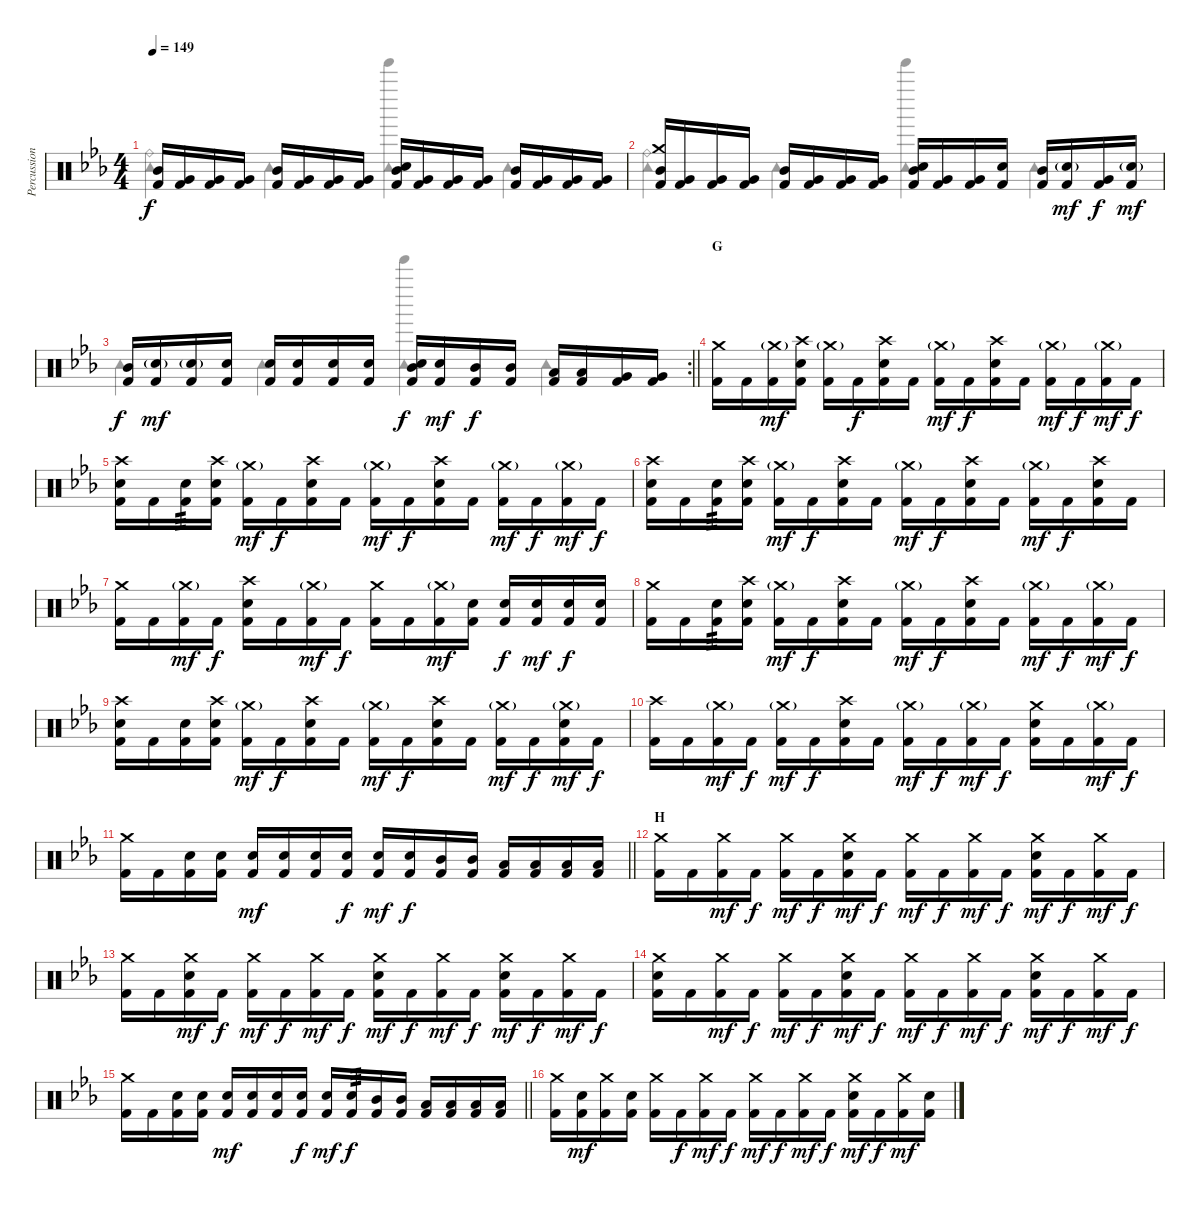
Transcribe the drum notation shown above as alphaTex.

\track ("Percussion" "Percussion") {instrument percussion}
\staff {score}
\articulation defaults
\voice
\ts (4 4)
\tempo 149
\clef neutral
\ks cminor
("Mid Tom (hit)" "Kick (hit) 2").16{dy f} ("Very Low Tom (hit)" "Kick (hit) 2").16 ("Very Low Tom (hit)" "Kick (hit) 2").16 ("Very Low Tom (hit)" "Kick (hit) 2").16 ("Mid Tom (hit)" "Kick (hit) 2").16 ("Very Low Tom (hit)" "Kick (hit) 2").16 ("Very Low Tom (hit)" "Kick (hit) 2").16 ("Very Low Tom (hit)" "Kick (hit) 2").16 ("Mid Tom (hit)" "Snare (hit) 2" "Kick (hit) 2").16 ("Very Low Tom (hit)" "Kick (hit) 2").16 ("Very Low Tom (hit)" "Kick (hit) 2").16 ("Very Low Tom (hit)" "Kick (hit) 2").16 ("Mid Tom (hit)" "Kick (hit) 2").16 ("Very Low Tom (hit)" "Kick (hit) 2").16 ("Very Low Tom (hit)" "Kick (hit) 2").16 ("Very Low Tom (hit)" "Kick (hit) 2").16 |
("Crash medium (hit)" "Mid Tom (hit)" "Kick (hit) 2").16 ("Very Low Tom (hit)" "Kick (hit) 2").16 ("Very Low Tom (hit)" "Kick (hit) 2").16 ("Very Low Tom (hit)" "Kick (hit) 2").16 ("Mid Tom (hit)" "Kick (hit) 2").16 ("Very Low Tom (hit)" "Kick (hit) 2").16 ("Very Low Tom (hit)" "Kick (hit) 2").16 ("Very Low Tom (hit)" "Kick (hit) 2").16 ("Mid Tom (hit)" "Snare (hit) 2" "Kick (hit) 2").16 ("Very Low Tom (hit)" "Kick (hit) 2").16 ("Very Low Tom (hit)" "Kick (hit) 2").16 ("Snare (hit) 2" "Kick (hit) 2").16 ("Mid Tom (hit)" "Kick (hit) 2").16 ("Snare (hit) 2"{g} "Kick (hit) 2").16{dy mf} ("Very Low Tom (hit)" "Kick (hit) 2").16{dy f} ("Snare (hit) 2"{g} "Kick (hit) 2").16{dy mf} |
\rc 2
\barLineRight lightlight
("Mid Tom (hit)" "Kick (hit) 2").16{dy f} ("Snare (hit) 2"{g} "Kick (hit) 2").16{dy mf} ("Snare (hit) 2"{g} "Kick (hit) 2").16 ("Snare (hit) 2" "Kick (hit) 2").16 ("Snare (hit) 2" "Kick (hit) 2").16 ("Snare (hit) 2" "Kick (hit) 2").16 ("Snare (hit) 2" "Kick (hit) 2").16 ("Snare (hit) 2" "Kick (hit) 2").16 ("Mid Tom (hit)" "Snare (hit) 2" "Kick (hit) 2").16{dy f} ("Snare (hit) 2" "Kick (hit) 2").16{dy mf} ("Mid Tom (hit)" "Kick (hit) 2").16{dy f} ("Mid Tom (hit)" "Kick (hit) 2").16 ("Low Tom (hit)" "Kick (hit) 2").16 ("Low Tom (hit)" "Kick (hit) 2").16 ("Very Low Tom (hit)" "Kick (hit) 2").16 ("Very Low Tom (hit)" "Kick (hit) 2").16 |
\section ("" "G")
("Crash medium (hit)" "Kick (hit) 2").16 "Kick (hit) 2".16 ("Crash medium (hit)"{g} "Kick (hit) 2").16{dy mf} ("Crash high (hit)" "Snare (hit) 2" "Kick (hit) 2").16 ("Crash medium (hit)"{g} "Kick (hit) 2").16 "Kick (hit) 2".16{dy f} ("Crash high (hit)" "Snare (hit) 2" "Kick (hit) 2").16 "Kick (hit) 2".16 ("Crash medium (hit)"{g} "Kick (hit) 2").16{dy mf} "Kick (hit) 2".16{dy f} ("Crash high (hit)" "Snare (hit) 2" "Kick (hit) 2").16 "Kick (hit) 2".16 ("Crash medium (hit)"{g} "Kick (hit) 2").16{dy mf} "Kick (hit) 2".16{dy f} ("Crash medium (hit)"{g} "Kick (hit) 2").16{dy mf} "Kick (hit) 2".16{dy f} |
("Crash high (hit)" "Snare (hit) 2" "Kick (hit) 2").16 "Kick (hit) 2".16 ("Snare (hit) 2" "Kick (hit) 2").16{tp 3} ("Crash high (hit)" "Snare (hit) 2" "Kick (hit) 2").16 ("Crash medium (hit)"{g} "Kick (hit) 2").16{dy mf} "Kick (hit) 2".16{dy f} ("Crash high (hit)" "Snare (hit) 2" "Kick (hit) 2").16 "Kick (hit) 2".16 ("Crash medium (hit)"{g} "Kick (hit) 2").16{dy mf} "Kick (hit) 2".16{dy f} ("Crash high (hit)" "Snare (hit) 2" "Kick (hit) 2").16 "Kick (hit) 2".16 ("Crash medium (hit)"{g} "Kick (hit) 2").16{dy mf} "Kick (hit) 2".16{dy f} ("Crash medium (hit)"{g} "Kick (hit) 2").16{dy mf} "Kick (hit) 2".16{dy f} |
("Crash high (hit)" "Snare (hit) 2" "Kick (hit) 2").16 "Kick (hit) 2".16 ("Snare (hit) 2" "Kick (hit) 2").16{tp 3} ("Crash high (hit)" "Snare (hit) 2" "Kick (hit) 2").16 ("Crash medium (hit)"{g} "Kick (hit) 2").16{dy mf} "Kick (hit) 2".16{dy f} ("Crash high (hit)" "Snare (hit) 2" "Kick (hit) 2").16 "Kick (hit) 2".16 ("Crash medium (hit)"{g} "Kick (hit) 2").16{dy mf} "Kick (hit) 2".16{dy f} ("Crash high (hit)" "Snare (hit) 2" "Kick (hit) 2").16 "Kick (hit) 2".16 ("Crash medium (hit)"{g} "Kick (hit) 2").16{dy mf} "Kick (hit) 2".16{dy f} ("Crash high (hit)" "Snare (hit) 2" "Kick (hit) 2").16 "Kick (hit) 2".16 |
("Crash medium (hit)" "Kick (hit) 2").16 "Kick (hit) 2".16 ("Crash medium (hit)"{g} "Kick (hit) 2").16{dy mf} "Kick (hit) 2".16{dy f} ("Crash high (hit)" "Snare (hit) 2" "Kick (hit) 2").16 "Kick (hit) 2".16 ("Crash medium (hit)"{g} "Kick (hit) 2").16{dy mf} "Kick (hit) 2".16{dy f} ("Crash medium (hit)" "Kick (hit) 2").16 "Kick (hit) 2".16 ("Crash medium (hit)"{g} "Kick (hit) 2").16{dy mf} ("Snare (hit) 2" "Kick (hit) 2").16 ("Snare (hit) 2" "Kick (hit) 2").16{dy f} ("Snare (hit) 2" "Kick (hit) 2").16{dy mf} ("Snare (hit) 2" "Kick (hit) 2").16{dy f} ("Snare (hit) 2" "Kick (hit) 2").16 |
("Crash medium (hit)" "Kick (hit) 2").16 "Kick (hit) 2".16 ("Snare (hit) 2" "Kick (hit) 2").16{tp 3} ("Crash high (hit)" "Snare (hit) 2" "Kick (hit) 2").16 ("Crash medium (hit)"{g} "Kick (hit) 2").16{dy mf} "Kick (hit) 2".16{dy f} ("Crash high (hit)" "Snare (hit) 2" "Kick (hit) 2").16 "Kick (hit) 2".16 ("Crash medium (hit)"{g} "Kick (hit) 2").16{dy mf} "Kick (hit) 2".16{dy f} ("Crash high (hit)" "Snare (hit) 2" "Kick (hit) 2").16 "Kick (hit) 2".16 ("Crash medium (hit)"{g} "Kick (hit) 2").16{dy mf} "Kick (hit) 2".16{dy f} ("Crash medium (hit)"{g} "Kick (hit) 2").16{dy mf} "Kick (hit) 2".16{dy f} |
("Crash high (hit)" "Snare (hit) 2" "Kick (hit) 2").16 "Kick (hit) 2".16 ("Snare (hit) 2" "Kick (hit) 2").16 ("Crash high (hit)" "Snare (hit) 2" "Kick (hit) 2").16 ("Crash medium (hit)"{g} "Kick (hit) 2").16{dy mf} "Kick (hit) 2".16{dy f} ("Crash high (hit)" "Snare (hit) 2" "Kick (hit) 2").16 "Kick (hit) 2".16 ("Crash medium (hit)"{g} "Kick (hit) 2").16{dy mf} "Kick (hit) 2".16{dy f} ("Crash high (hit)" "Snare (hit) 2" "Kick (hit) 2").16 "Kick (hit) 2".16 ("Crash medium (hit)"{g} "Kick (hit) 2").16{dy mf} "Kick (hit) 2".16{dy f} ("Crash medium (hit)"{g} "Snare (hit) 2" "Kick (hit) 2").16{dy mf} "Kick (hit) 2".16{dy f} |
("Crash high (hit)" "Kick (hit) 2").16 "Kick (hit) 2".16 ("Crash medium (hit)"{g} "Kick (hit) 2").16{dy mf} "Kick (hit) 2".16{dy f} ("Crash medium (hit)"{g} "Kick (hit) 2").16{dy mf} "Kick (hit) 2".16{dy f} ("Crash high (hit)" "Snare (hit) 2" "Kick (hit) 2").16 "Kick (hit) 2".16 ("Crash medium (hit)"{g} "Kick (hit) 2").16{dy mf} "Kick (hit) 2".16{dy f} ("Crash medium (hit)"{g} "Kick (hit) 2").16{dy mf} "Kick (hit) 2".16{dy f} ("Crash medium (hit)" "Snare (hit) 2" "Kick (hit) 2").16 "Kick (hit) 2".16 ("Crash medium (hit)"{g} "Kick (hit) 2").16{dy mf} "Kick (hit) 2".16{dy f} |
\barLineRight lightlight
("Crash medium (hit)" "Kick (hit) 2").16 "Kick (hit) 2".16 ("Snare (hit) 2" "Kick (hit) 2").16 ("Snare (hit) 2" "Kick (hit) 2").16 ("Snare (hit) 2" "Kick (hit) 2").16{dy mf} ("Snare (hit) 2" "Kick (hit) 2").16 ("Snare (hit) 2" "Kick (hit) 2").16 ("Snare (hit) 2" "Kick (hit) 2").16{dy f} ("Snare (hit) 2" "Kick (hit) 2").16{dy mf} ("Snare (hit) 2" "Kick (hit) 2").16{dy f} ("Mid Tom (hit)" "Kick (hit) 2").16 ("Mid Tom (hit)" "Kick (hit) 2").16 ("Low Tom (hit)" "Kick (hit) 2").16 ("Low Tom (hit)" "Kick (hit) 2").16 ("Low Tom (hit)" "Kick (hit) 2").16 ("Low Tom (hit)" "Kick (hit) 2").16 |
\section ("" "H")
("Crash medium (hit)" "Kick (hit) 2").16 "Kick (hit) 2".16 ("Crash medium (hit)" "Kick (hit) 2").16{dy mf} "Kick (hit) 2".16{dy f} ("Crash medium (hit)" "Kick (hit) 2").16{dy mf} "Kick (hit) 2".16{dy f} ("Crash medium (hit)" "Snare (hit) 2" "Kick (hit) 2").16{dy mf} "Kick (hit) 2".16{dy f} ("Crash medium (hit)" "Kick (hit) 2").16{dy mf} "Kick (hit) 2".16{dy f} ("Crash medium (hit)" "Kick (hit) 2").16{dy mf} "Kick (hit) 2".16{dy f} ("Crash medium (hit)" "Snare (hit) 2" "Kick (hit) 2").16{dy mf} "Kick (hit) 2".16{dy f} ("Crash medium (hit)" "Kick (hit) 2").16{dy mf} "Kick (hit) 2".16{dy f} |
("Crash medium (hit)" "Kick (hit) 2").16 "Kick (hit) 2".16 ("Crash medium (hit)" "Snare (hit) 2" "Kick (hit) 2").16{dy mf} "Kick (hit) 2".16{dy f} ("Crash medium (hit)" "Kick (hit) 2").16{dy mf} "Kick (hit) 2".16{dy f} ("Crash medium (hit)" "Kick (hit) 2").16{dy mf} "Kick (hit) 2".16{dy f} ("Crash medium (hit)" "Snare (hit) 2" "Kick (hit) 2").16{dy mf} "Kick (hit) 2".16{dy f} ("Crash medium (hit)" "Kick (hit) 2").16{dy mf} "Kick (hit) 2".16{dy f} ("Crash medium (hit)" "Snare (hit) 2" "Kick (hit) 2").16{dy mf} "Kick (hit) 2".16{dy f} ("Crash medium (hit)" "Kick (hit) 2").16{dy mf} "Kick (hit) 2".16{dy f} |
("Crash medium (hit)" "Snare (hit) 2" "Kick (hit) 2").16 "Kick (hit) 2".16 ("Crash medium (hit)" "Kick (hit) 2").16{dy mf} "Kick (hit) 2".16{dy f} ("Crash medium (hit)" "Kick (hit) 2").16{dy mf} "Kick (hit) 2".16{dy f} ("Crash medium (hit)" "Snare (hit) 2" "Kick (hit) 2").16{dy mf} "Kick (hit) 2".16{dy f} ("Crash medium (hit)" "Kick (hit) 2").16{dy mf} "Kick (hit) 2".16{dy f} ("Crash medium (hit)" "Kick (hit) 2").16{dy mf} "Kick (hit) 2".16{dy f} ("Crash medium (hit)" "Snare (hit) 2" "Kick (hit) 2").16{dy mf} "Kick (hit) 2".16{dy f} ("Crash medium (hit)" "Kick (hit) 2").16{dy mf} "Kick (hit) 2".16{dy f} |
\barLineRight lightlight
("Crash medium (hit)" "Kick (hit) 2").16 "Kick (hit) 2".16 ("Snare (hit) 2" "Kick (hit) 2").16 ("Snare (hit) 2" "Kick (hit) 2").16 ("Snare (hit) 2" "Kick (hit) 2").16{dy mf} ("Snare (hit) 2" "Kick (hit) 2").16 ("Snare (hit) 2" "Kick (hit) 2").16 ("Snare (hit) 2" "Kick (hit) 2").16{dy f} ("Snare (hit) 2" "Kick (hit) 2").16{dy mf} ("Snare (hit) 2" "Kick (hit) 2").16{tp 3 dy f} ("Mid Tom (hit)" "Kick (hit) 2").16 ("Mid Tom (hit)" "Kick (hit) 2").16 ("Low Tom (hit)" "Kick (hit) 2").16 ("Low Tom (hit)" "Kick (hit) 2").16 ("Low Tom (hit)" "Kick (hit) 2").16 ("Low Tom (hit)" "Kick (hit) 2").16 |
("Crash medium (hit)" "Kick (hit) 2").16 ("Snare (hit) 2" "Kick (hit) 2").16{dy mf} ("Crash medium (hit)" "Kick (hit) 2").16 ("Snare (hit) 2" "Kick (hit) 2").16 ("Crash medium (hit)" "Kick (hit) 2").16 "Kick (hit) 2".16{dy f} ("Crash medium (hit)" "Kick (hit) 2").16{dy mf} "Kick (hit) 2".16{dy f} ("Crash medium (hit)" "Kick (hit) 2").16{dy mf} "Kick (hit) 2".16{dy f} ("Crash medium (hit)" "Kick (hit) 2").16{dy mf} "Kick (hit) 2".16{dy f} ("Crash medium (hit)" "Snare (hit) 2" "Kick (hit) 2").16{dy mf} "Kick (hit) 2".16{dy f} ("Crash medium (hit)" "Kick (hit) 2").16{dy mf} ("Snare (hit) 2" "Kick (hit) 2").16
\voice
\clef neutral
\ottava regular
\simile none
\ks cminor
("Ride (bell)" "Tambourine (hit)").4{dy f} "Tambourine (hit)".4 ("Tinkle Bell (hit)" "Tambourine (hit)").4 "Tambourine (hit)".4 |
("Ride (bell)" "Tambourine (hit)").4 "Tambourine (hit)".4 ("Tinkle Bell (hit)" "Tambourine (hit)").4 "Tambourine (hit)".4 |
\barLineRight lightlight "Tambourine (hit)".4 "Tambourine (hit)".4
("Tinkle Bell (hit)" "Tambourine (hit)").4 "Tambourine (hit)".4 |
|
|
|
|
|
|
|
\barLineRight lightlight
|
|
|
|
\barLineRight lightlight
|
